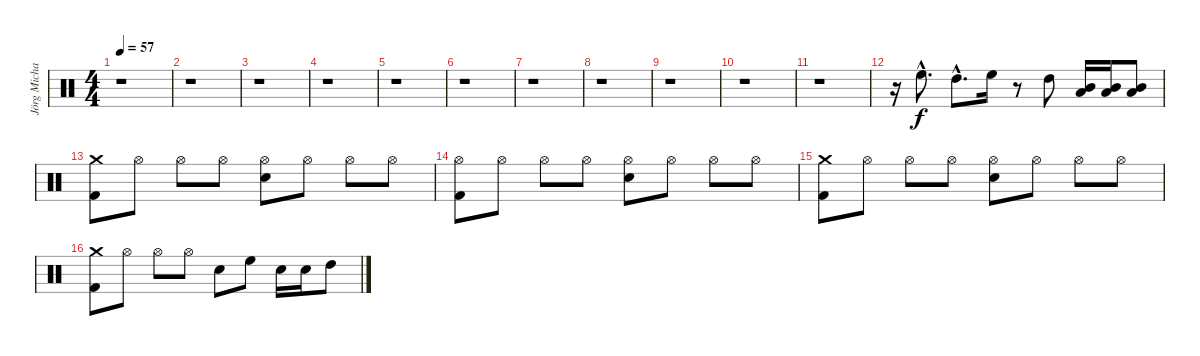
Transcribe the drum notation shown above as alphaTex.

\track ("Jörg Michael" "Jörg Micha") {instrument percussion}
\staff {score}
\articulation defaults
\ts (4 4)
\tempo 57
\clef neutral
\ks c
r.1{dy f} |
r.1 |
r.1 |
r.1 |
r.1 |
r.1 |
r.1 |
r.1 |
r.1 |
r.1 |
r.1 |
r.16 "High Floor Tom (hit)"{hac}.8{d} "High Tom (hit)"{hac}.8{d} "High Floor Tom (hit)".16 r.8 "High Tom (hit)".8 ("Low Tom (hit)" "Mid Tom (hit)").16 ("Low Tom (hit)" "Mid Tom (hit)").16 ("Mid Tom (hit)" "Low Tom (hit)").8 |
("Kick (hit) 2" "Crash medium (hit)").8 "Hi-Hat (open)".8 "Hi-Hat (open)".8 "Hi-Hat (open)".8 ("Snare (hit) 2" "Hi-Hat (open)").8 "Hi-Hat (open)".8 "Hi-Hat (open)".8 "Hi-Hat (open)".8 |
("Hi-Hat (open)" "Kick (hit) 2").8 "Hi-Hat (open)".8 "Hi-Hat (open)".8 "Hi-Hat (open)".8 ("Hi-Hat (open)" "Snare (hit) 2").8 "Hi-Hat (open)".8 "Hi-Hat (open)".8 "Hi-Hat (open)".8 |
("Kick (hit) 2" "Crash medium (hit)").8 "Hi-Hat (open)".8 "Hi-Hat (open)".8 "Hi-Hat (open)".8 ("Snare (hit) 2" "Hi-Hat (open)").8 "Hi-Hat (open)".8 "Hi-Hat (open)".8 "Hi-Hat (open)".8 |
("Kick (hit) 2" "Crash medium (hit)").8 "Hi-Hat (open)".8 "Hi-Hat (open)".8 "Hi-Hat (open)".8 "Snare (hit) 2".8 "High Floor Tom (hit)".8 "Snare (hit) 2".16 "Snare (hit) 2".16 "High Tom (hit)".8
